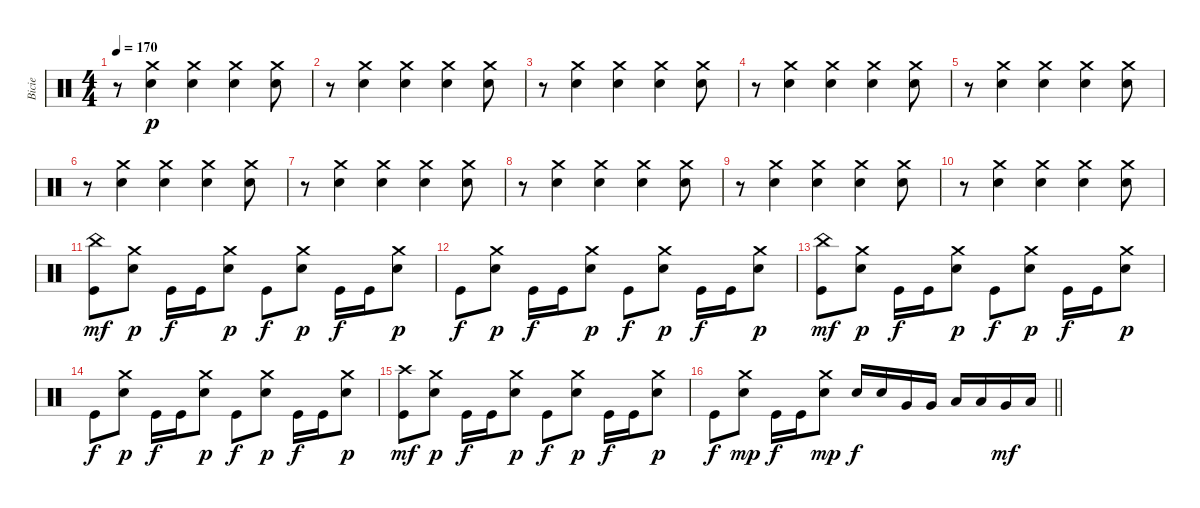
\track ("Bicie" "Bicie") {instrument percussion}
\staff {score}
\articulation defaults
\ts (4 4)
\tempo 170
\clef neutral
\ks c
r.8{dy mp} ("Snare (hit) 2" "Crash medium (hit)").4{dy p} ("Snare (hit) 2" "Crash medium (hit)").4 ("Snare (hit) 2" "Crash medium (hit)").4 ("Snare (hit) 2" "Crash medium (hit)").8 |
r.8 ("Snare (hit) 2" "Crash medium (hit)").4 ("Snare (hit) 2" "Crash medium (hit)").4 ("Snare (hit) 2" "Crash medium (hit)").4 ("Snare (hit) 2" "Crash medium (hit)").8 |
r.8 ("Snare (hit) 2" "Crash medium (hit)").4 ("Snare (hit) 2" "Crash medium (hit)").4 ("Snare (hit) 2" "Crash medium (hit)").4 ("Snare (hit) 2" "Crash medium (hit)").8 |
r.8 ("Snare (hit) 2" "Crash medium (hit)").4 ("Snare (hit) 2" "Crash medium (hit)").4 ("Snare (hit) 2" "Crash medium (hit)").4 ("Snare (hit) 2" "Crash medium (hit)").8 |
r.8 ("Snare (hit) 2" "Crash medium (hit)").4 ("Snare (hit) 2" "Crash medium (hit)").4 ("Snare (hit) 2" "Crash medium (hit)").4 ("Snare (hit) 2" "Crash medium (hit)").8 |
r.8 ("Snare (hit) 2" "Crash medium (hit)").4 ("Snare (hit) 2" "Crash medium (hit)").4 ("Snare (hit) 2" "Crash medium (hit)").4 ("Snare (hit) 2" "Crash medium (hit)").8 |
r.8 ("Snare (hit) 2" "Crash medium (hit)").4 ("Snare (hit) 2" "Crash medium (hit)").4 ("Snare (hit) 2" "Crash medium (hit)").4 ("Snare (hit) 2" "Crash medium (hit)").8 |
r.8 ("Snare (hit) 2" "Crash medium (hit)").4 ("Snare (hit) 2" "Crash medium (hit)").4 ("Snare (hit) 2" "Crash medium (hit)").4 ("Snare (hit) 2" "Crash medium (hit)").8 |
r.8 ("Snare (hit) 2" "Crash medium (hit)").4 ("Snare (hit) 2" "Crash medium (hit)").4 ("Snare (hit) 2" "Crash medium (hit)").4 ("Snare (hit) 2" "Crash medium (hit)").8 |
r.8 ("Snare (hit) 2" "Crash medium (hit)").4 ("Snare (hit) 2" "Crash medium (hit)").4 ("Snare (hit) 2" "Crash medium (hit)").4 ("Snare (hit) 2" "Crash medium (hit)").8 |
("Kick (hit)" "China (hit)").8{dy mf} ("Snare (hit) 2" "Crash medium (hit)").8{dy p} "Kick (hit)".16{dy f} "Kick (hit)".16 ("Snare (hit) 2" "Crash medium (hit)").8{dy p} "Kick (hit)".8{dy f} ("Snare (hit) 2" "Crash medium (hit)").8{dy p} "Kick (hit)".16{dy f} "Kick (hit)".16 ("Snare (hit) 2" "Crash medium (hit)").8{dy p} |
"Kick (hit)".8{dy f} ("Snare (hit) 2" "Crash medium (hit)").8{dy p} "Kick (hit)".16{dy f} "Kick (hit)".16 ("Snare (hit) 2" "Crash medium (hit)").8{dy p} "Kick (hit)".8{dy f} ("Snare (hit) 2" "Crash medium (hit)").8{dy p} "Kick (hit)".16{dy f} "Kick (hit)".16 ("Snare (hit) 2" "Crash medium (hit)").8{dy p} |
("Kick (hit)" "China (hit)").8{dy mf} ("Snare (hit) 2" "Crash medium (hit)").8{dy p} "Kick (hit)".16{dy f} "Kick (hit)".16 ("Snare (hit) 2" "Crash medium (hit)").8{dy p} "Kick (hit)".8{dy f} ("Snare (hit) 2" "Crash medium (hit)").8{dy p} "Kick (hit)".16{dy f} "Kick (hit)".16 ("Snare (hit) 2" "Crash medium (hit)").8{dy p} |
"Kick (hit)".8{dy f} ("Snare (hit) 2" "Crash medium (hit)").8{dy p} "Kick (hit)".16{dy f} "Kick (hit)".16 ("Snare (hit) 2" "Crash medium (hit)").8{dy p} "Kick (hit)".8{dy f} ("Snare (hit) 2" "Crash medium (hit)").8{dy p} "Kick (hit)".16{dy f} "Kick (hit)".16 ("Snare (hit) 2" "Crash medium (hit)").8{dy p} |
("Kick (hit)" "Crash high (hit)").8{dy mf} ("Snare (hit) 2" "Crash medium (hit)").8{dy p} "Kick (hit)".16{dy f} "Kick (hit)".16 ("Snare (hit) 2" "Crash medium (hit)").8{dy p} "Kick (hit)".8{dy f} ("Snare (hit) 2" "Crash medium (hit)").8{dy p} "Kick (hit)".16{dy f} "Kick (hit)".16 ("Snare (hit) 2" "Crash medium (hit)").8{dy p} |
\barLineRight lightlight "Kick (hit)".8{dy f}
("Snare (hit) 2" "Crash medium (hit)").8{dy mp} "Kick (hit)".16{dy f} "Kick (hit)".16 ("Snare (hit) 2" "Crash medium (hit)").8{dy mp} "Snare (hit) 2".16{dy f} "Snare (hit) 2".16 "Very Low Tom (hit)".16 "Very Low Tom (hit)".16 "Low Floor Tom (hit)".16 "Low Floor Tom (hit)".16 "Very Low Tom (hit)".16{dy mf} "Low Floor Tom (hit)".16
